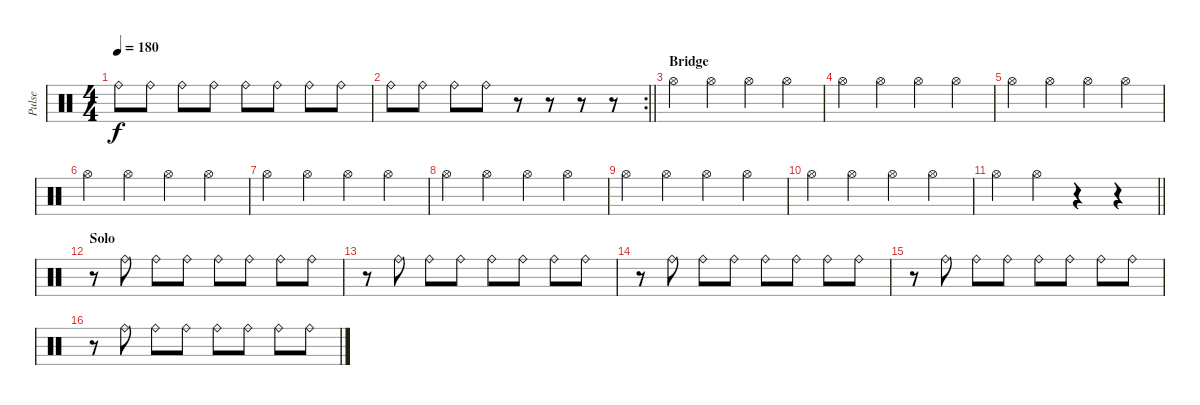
\track ("Pulse" "Pulse") {instrument percussion}
\staff {score}
\articulation defaults
\ts (4 4)
\tempo 180
\clef neutral
\ks c "Ride (bell)".8{dy f} "Ride (bell)".8 "Ride (bell)".8 "Ride (bell)".8 "Ride (bell)".8 "Ride (bell)".8 "Ride (bell)".8 "Ride (bell)".8
|
\rc 2
\barLineRight lightlight "Ride (bell)".8 "Ride (bell)".8 "Ride (bell)".8 "Ride (bell)".8
r.8 r.8 r.8 r.8 |
\section ("" "Bridge")
"Hi-Hat (open)".4 "Hi-Hat (open)".4 "Hi-Hat (open)".4 "Hi-Hat (open)".4 |
"Hi-Hat (open)".4 "Hi-Hat (open)".4 "Hi-Hat (open)".4 "Hi-Hat (open)".4 |
"Hi-Hat (open)".4 "Hi-Hat (open)".4 "Hi-Hat (open)".4 "Hi-Hat (open)".4 |
"Hi-Hat (open)".4 "Hi-Hat (open)".4 "Hi-Hat (open)".4 "Hi-Hat (open)".4 |
"Hi-Hat (open)".4 "Hi-Hat (open)".4 "Hi-Hat (open)".4 "Hi-Hat (open)".4 |
"Hi-Hat (open)".4 "Hi-Hat (open)".4 "Hi-Hat (open)".4 "Hi-Hat (open)".4 |
"Hi-Hat (open)".4 "Hi-Hat (open)".4 "Hi-Hat (open)".4 "Hi-Hat (open)".4 |
"Hi-Hat (open)".4 "Hi-Hat (open)".4 "Hi-Hat (open)".4 "Hi-Hat (open)".4 |
\barLineRight lightlight "Hi-Hat (open)".4 "Hi-Hat (open)".4
r.4 r.4 |
\section ("" "Solo")
r.8 "Ride (bell)".8 "Ride (bell)".8 "Ride (bell)".8 "Ride (bell)".8 "Ride (bell)".8 "Ride (bell)".8 "Ride (bell)".8 |
r.8 "Ride (bell)".8 "Ride (bell)".8 "Ride (bell)".8 "Ride (bell)".8 "Ride (bell)".8 "Ride (bell)".8 "Ride (bell)".8 |
r.8 "Ride (bell)".8 "Ride (bell)".8 "Ride (bell)".8 "Ride (bell)".8 "Ride (bell)".8 "Ride (bell)".8 "Ride (bell)".8 |
r.8 "Ride (bell)".8 "Ride (bell)".8 "Ride (bell)".8 "Ride (bell)".8 "Ride (bell)".8 "Ride (bell)".8 "Ride (bell)".8 |
r.8 "Ride (bell)".8 "Ride (bell)".8 "Ride (bell)".8 "Ride (bell)".8 "Ride (bell)".8 "Ride (bell)".8 "Ride (bell)".8
